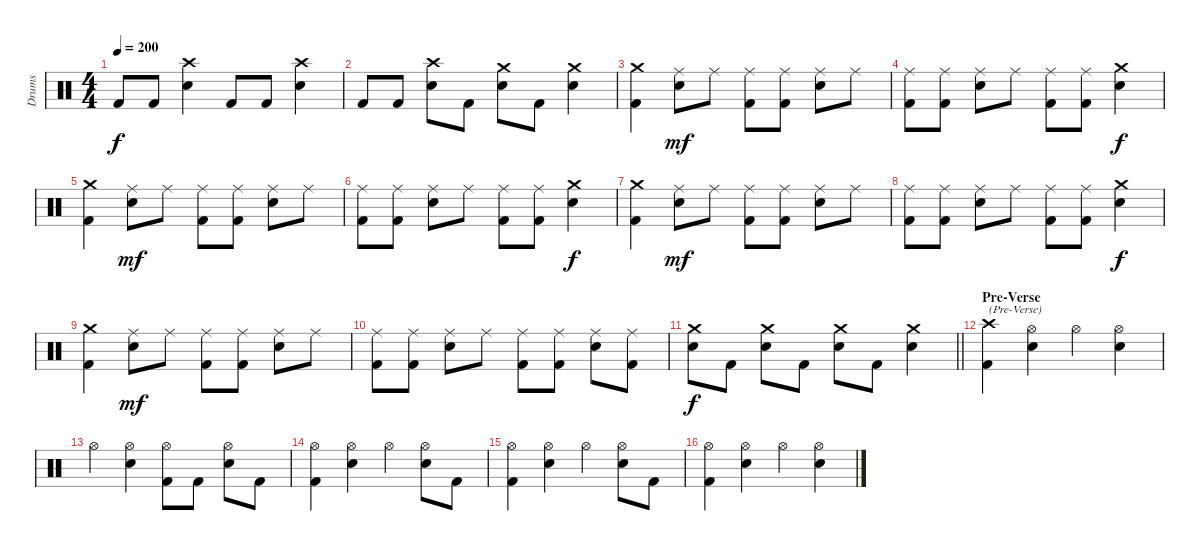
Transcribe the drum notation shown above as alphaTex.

\track ("Drums" "Drums") {instrument percussion}
\staff {score}
\articulation defaults
\ts (4 4)
\tempo 200
\clef neutral
\ks c "Kick (hit) 2".8{dy f} "Kick (hit) 2".8
("Crash high (hit)" "Electric Snare (hit)").4 "Kick (hit) 2".8 "Kick (hit) 2".8 ("Crash high (hit)" "Electric Snare (hit)").4 |
"Kick (hit) 2".8 "Kick (hit) 2".8 ("Crash high (hit)" "Electric Snare (hit)").8 "Kick (hit) 2".8 ("Crash medium (hit)" "Electric Snare (hit)").8 "Kick (hit) 2".8 ("Crash medium (hit)" "Electric Snare (hit)").4 |
("Crash medium (hit)" "Kick (hit) 2").4 ("Ride (middle)" "Electric Snare (hit)").8{dy mf} "Ride (middle)".8 ("Ride (middle)" "Kick (hit) 2").8 ("Ride (middle)" "Kick (hit) 2").8 ("Ride (middle)" "Electric Snare (hit)").8 "Ride (middle)".8 |
("Ride (middle)" "Kick (hit) 2").8 ("Ride (middle)" "Kick (hit) 2").8 ("Ride (middle)" "Electric Snare (hit)").8 "Ride (middle)".8 ("Ride (middle)" "Kick (hit) 2").8 ("Ride (middle)" "Kick (hit) 2").8 ("Crash medium (hit)" "Electric Snare (hit)").4{dy f} |
("Crash medium (hit)" "Kick (hit) 2").4 ("Ride (middle)" "Electric Snare (hit)").8{dy mf} "Ride (middle)".8 ("Ride (middle)" "Kick (hit) 2").8 ("Ride (middle)" "Kick (hit) 2").8 ("Ride (middle)" "Electric Snare (hit)").8 "Ride (middle)".8 |
("Ride (middle)" "Kick (hit) 2").8 ("Ride (middle)" "Kick (hit) 2").8 ("Ride (middle)" "Electric Snare (hit)").8 "Ride (middle)".8 ("Ride (middle)" "Kick (hit) 2").8 ("Ride (middle)" "Kick (hit) 2").8 ("Crash medium (hit)" "Electric Snare (hit)").4{dy f} |
("Crash medium (hit)" "Kick (hit) 2").4 ("Ride (middle)" "Electric Snare (hit)").8{dy mf} "Ride (middle)".8 ("Ride (middle)" "Kick (hit) 2").8 ("Ride (middle)" "Kick (hit) 2").8 ("Ride (middle)" "Electric Snare (hit)").8 "Ride (middle)".8 |
("Ride (middle)" "Kick (hit) 2").8 ("Ride (middle)" "Kick (hit) 2").8 ("Ride (middle)" "Electric Snare (hit)").8 "Ride (middle)".8 ("Ride (middle)" "Kick (hit) 2").8 ("Ride (middle)" "Kick (hit) 2").8 ("Crash medium (hit)" "Electric Snare (hit)").4{dy f} |
("Crash medium (hit)" "Kick (hit) 2").4 ("Ride (middle)" "Electric Snare (hit)").8{dy mf} "Ride (middle)".8 ("Ride (middle)" "Kick (hit) 2").8 ("Ride (middle)" "Kick (hit) 2").8 ("Ride (middle)" "Electric Snare (hit)").8 "Ride (middle)".8 |
("Ride (middle)" "Kick (hit) 2").8 ("Ride (middle)" "Kick (hit) 2").8 ("Ride (middle)" "Electric Snare (hit)").8 "Ride (middle)".8 ("Ride (middle)" "Kick (hit) 2").8 ("Ride (middle)" "Kick (hit) 2").8 ("Ride (middle)" "Electric Snare (hit)").8 ("Ride (middle)" "Kick (hit) 2").8 |
\barLineRight lightlight
("Crash medium (hit)" "Electric Snare (hit)").8{dy f} "Kick (hit) 2".8 ("Crash medium (hit)" "Electric Snare (hit)").8 "Kick (hit) 2".8 ("Crash medium (hit)" "Electric Snare (hit)").8 "Kick (hit) 2".8 ("Crash medium (hit)" "Electric Snare (hit)").4 |
\section ("" "Pre-Verse")
("Crash high (hit)" "Kick (hit) 2").4{txt "(Pre-Verse)"} ("Hi-Hat (open)" "Electric Snare (hit)").4 "Hi-Hat (open)".4 ("Hi-Hat (open)" "Electric Snare (hit)").4 |
"Hi-Hat (open)".4 ("Hi-Hat (open)" "Electric Snare (hit)").4 ("Hi-Hat (open)" "Kick (hit) 2").8 "Kick (hit) 2".8 ("Hi-Hat (open)" "Electric Snare (hit)").8 "Kick (hit) 2".8 |
("Hi-Hat (open)" "Kick (hit) 2").4 ("Hi-Hat (open)" "Electric Snare (hit)").4 "Hi-Hat (open)".4 ("Hi-Hat (open)" "Electric Snare (hit)").8 "Kick (hit) 2".8 |
("Hi-Hat (open)" "Kick (hit) 2").4 ("Hi-Hat (open)" "Electric Snare (hit)").4 "Hi-Hat (open)".4 ("Hi-Hat (open)" "Electric Snare (hit)").8 "Kick (hit) 2".8 |
("Hi-Hat (open)" "Kick (hit) 2").4 ("Hi-Hat (open)" "Electric Snare (hit)").4 "Hi-Hat (open)".4 ("Hi-Hat (open)" "Electric Snare (hit)").4
